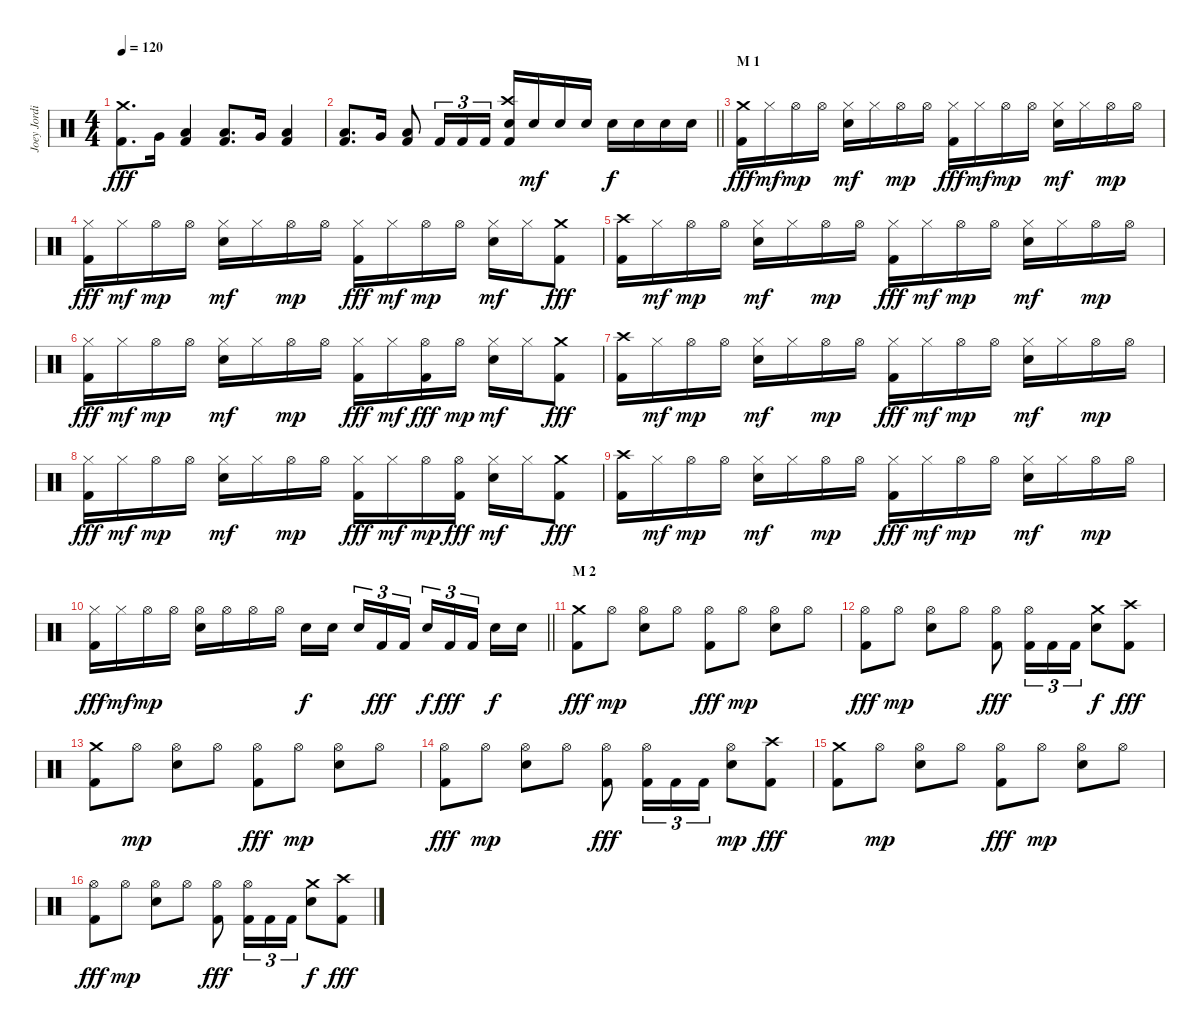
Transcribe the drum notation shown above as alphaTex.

\track ("Joey Jordison" "Joey Jordi") {instrument percussion}
\staff {score}
\articulation defaults
\ts (4 4)
\tempo 120
\clef neutral
\ks c
("Crash medium (hit)" "Kick (hit) 2").8{d dy fff} "Very Low Tom (hit)".16 ("Low Floor Tom (hit)" "Kick (hit) 2").4 ("Low Floor Tom (hit)" "Kick (hit) 2").8{d} "Very Low Tom (hit)".16 ("Low Floor Tom (hit)" "Kick (hit) 2").4 |
\barLineRight lightlight
("Low Floor Tom (hit)" "Kick (hit) 2").8{d} "Very Low Tom (hit)".16 ("Low Floor Tom (hit)" "Kick (hit) 2").8 "Kick (hit) 2".16{tu (3 2)} "Kick (hit) 2".16{tu (3 2)} "Kick (hit) 2".16{tu (3 2)} ("Crash high (hit)" "Electric Snare (hit)" "Kick (hit) 2").16 "Electric Snare (hit)".16{dy mf} "Electric Snare (hit)".16 "Electric Snare (hit)".16 "Electric Snare (hit)".16{dy f} "Electric Snare (hit)".16 "Electric Snare (hit)".16 "Electric Snare (hit)".16 |
\section ("" "M 1")
("Crash medium (hit)" "Kick (hit) 2").16{dy fff} "Hi-Hat (closed)".16{dy mf} "Hi-Hat (open)".16{dy mp} "Hi-Hat (open)".16 ("Hi-Hat (closed)" "Electric Snare (hit)").16{dy mf} "Hi-Hat (closed)".16 "Hi-Hat (open)".16{dy mp} "Hi-Hat (open)".16 ("Hi-Hat (closed)" "Kick (hit) 2").16{dy fff} "Hi-Hat (closed)".16{dy mf} "Hi-Hat (open)".16{dy mp} "Hi-Hat (open)".16 ("Hi-Hat (closed)" "Electric Snare (hit)").16{dy mf} "Hi-Hat (closed)".16 "Hi-Hat (open)".16{dy mp} "Hi-Hat (open)".16 |
("Hi-Hat (closed)" "Kick (hit) 2").16{dy fff} "Hi-Hat (closed)".16{dy mf} "Hi-Hat (open)".16{dy mp} "Hi-Hat (open)".16 ("Hi-Hat (closed)" "Electric Snare (hit)").16{dy mf} "Hi-Hat (closed)".16 "Hi-Hat (open)".16{dy mp} "Hi-Hat (open)".16 ("Hi-Hat (closed)" "Kick (hit) 2").16{dy fff} "Hi-Hat (closed)".16{dy mf} "Hi-Hat (open)".16{dy mp} "Hi-Hat (open)".16 ("Hi-Hat (closed)" "Electric Snare (hit)").16{dy mf} "Hi-Hat (closed)".16 ("Crash medium (hit)" "Kick (hit) 2").8{dy fff} |
("Crash high (hit)" "Kick (hit) 2").16 "Hi-Hat (closed)".16{dy mf} "Hi-Hat (open)".16{dy mp} "Hi-Hat (open)".16 ("Hi-Hat (closed)" "Electric Snare (hit)").16{dy mf} "Hi-Hat (closed)".16 "Hi-Hat (open)".16{dy mp} "Hi-Hat (open)".16 ("Hi-Hat (closed)" "Kick (hit) 2").16{dy fff} "Hi-Hat (closed)".16{dy mf} "Hi-Hat (open)".16{dy mp} "Hi-Hat (open)".16 ("Hi-Hat (closed)" "Electric Snare (hit)").16{dy mf} "Hi-Hat (closed)".16 "Hi-Hat (open)".16{dy mp} "Hi-Hat (open)".16 |
("Hi-Hat (closed)" "Kick (hit) 2").16{dy fff} "Hi-Hat (closed)".16{dy mf} "Hi-Hat (open)".16{dy mp} "Hi-Hat (open)".16 ("Hi-Hat (closed)" "Electric Snare (hit)").16{dy mf} "Hi-Hat (closed)".16 "Hi-Hat (open)".16{dy mp} "Hi-Hat (open)".16 ("Hi-Hat (closed)" "Kick (hit) 2").16{dy fff} "Hi-Hat (closed)".16{dy mf} ("Hi-Hat (open)" "Kick (hit) 2").16{dy fff} "Hi-Hat (open)".16{dy mp} ("Hi-Hat (closed)" "Electric Snare (hit)").16{dy mf} "Hi-Hat (closed)".16 ("Crash medium (hit)" "Kick (hit) 2").8{dy fff} |
("Crash high (hit)" "Kick (hit) 2").16 "Hi-Hat (closed)".16{dy mf} "Hi-Hat (open)".16{dy mp} "Hi-Hat (open)".16 ("Hi-Hat (closed)" "Electric Snare (hit)").16{dy mf} "Hi-Hat (closed)".16 "Hi-Hat (open)".16{dy mp} "Hi-Hat (open)".16 ("Hi-Hat (closed)" "Kick (hit) 2").16{dy fff} "Hi-Hat (closed)".16{dy mf} "Hi-Hat (open)".16{dy mp} "Hi-Hat (open)".16 ("Hi-Hat (closed)" "Electric Snare (hit)").16{dy mf} "Hi-Hat (closed)".16 "Hi-Hat (open)".16{dy mp} "Hi-Hat (open)".16 |
("Hi-Hat (closed)" "Kick (hit) 2").16{dy fff} "Hi-Hat (closed)".16{dy mf} "Hi-Hat (open)".16{dy mp} "Hi-Hat (open)".16 ("Hi-Hat (closed)" "Electric Snare (hit)").16{dy mf} "Hi-Hat (closed)".16 "Hi-Hat (open)".16{dy mp} "Hi-Hat (open)".16 ("Hi-Hat (closed)" "Kick (hit) 2").16{dy fff} "Hi-Hat (closed)".16{dy mf} "Hi-Hat (open)".16{dy mp} ("Hi-Hat (open)" "Kick (hit) 2").16{dy fff} ("Hi-Hat (closed)" "Electric Snare (hit)").16{dy mf} "Hi-Hat (closed)".16 ("Crash medium (hit)" "Kick (hit) 2").8{dy fff} |
("Crash high (hit)" "Kick (hit) 2").16 "Hi-Hat (closed)".16{dy mf} "Hi-Hat (open)".16{dy mp} "Hi-Hat (open)".16 ("Hi-Hat (closed)" "Electric Snare (hit)").16{dy mf} "Hi-Hat (closed)".16 "Hi-Hat (open)".16{dy mp} "Hi-Hat (open)".16 ("Hi-Hat (closed)" "Kick (hit) 2").16{dy fff} "Hi-Hat (closed)".16{dy mf} "Hi-Hat (open)".16{dy mp} "Hi-Hat (open)".16 ("Hi-Hat (closed)" "Electric Snare (hit)").16{dy mf} "Hi-Hat (closed)".16 "Hi-Hat (open)".16{dy mp} "Hi-Hat (open)".16 |
\barLineRight lightlight
("Hi-Hat (closed)" "Kick (hit) 2").16{dy fff} "Hi-Hat (closed)".16{dy mf} "Hi-Hat (open)".16{dy mp} "Hi-Hat (open)".16 ("Hi-Hat (open)" "Electric Snare (hit)").16 "Hi-Hat (open)".16 "Hi-Hat (open)".16 "Hi-Hat (open)".16 "Electric Snare (hit)".16{dy f} "Electric Snare (hit)".16{beam splitsecondary} "Electric Snare (hit)".16{tu (3 2)} "Kick (hit) 2".16{tu (3 2) dy fff} "Kick (hit) 2".16{tu (3 2)} "Electric Snare (hit)".16{tu (3 2) dy f} "Kick (hit) 2".16{tu (3 2) dy fff} "Kick (hit) 2".16{tu (3 2) beam splitsecondary} "Electric Snare (hit)".16{dy f} "Electric Snare (hit)".16 |
\section ("" "M 2")
("Crash medium (hit)" "Kick (hit) 2").8{dy fff} "Hi-Hat (open)".8{dy mp} ("Hi-Hat (open)" "Electric Snare (hit)").8 "Hi-Hat (open)".8 ("Hi-Hat (open)" "Kick (hit) 2").8{dy fff} "Hi-Hat (open)".8{dy mp} ("Hi-Hat (open)" "Electric Snare (hit)").8 "Hi-Hat (open)".8 |
("Hi-Hat (open)" "Kick (hit) 2").8{dy fff} "Hi-Hat (open)".8{dy mp} ("Hi-Hat (open)" "Electric Snare (hit)").8 "Hi-Hat (open)".8 ("Hi-Hat (open)" "Kick (hit) 2").8{dy fff} ("Hi-Hat (open)" "Kick (hit) 2").16{tu (3 2)} "Kick (hit) 2".16{tu (3 2)} "Kick (hit) 2".16{tu (3 2)} ("Crash medium (hit)" "Electric Snare (hit)").8{dy f} ("Crash high (hit)" "Kick (hit) 2").8{dy fff} |
("Crash medium (hit)" "Kick (hit) 2").8 "Hi-Hat (open)".8{dy mp} ("Hi-Hat (open)" "Electric Snare (hit)").8 "Hi-Hat (open)".8 ("Hi-Hat (open)" "Kick (hit) 2").8{dy fff} "Hi-Hat (open)".8{dy mp} ("Hi-Hat (open)" "Electric Snare (hit)").8 "Hi-Hat (open)".8 |
("Hi-Hat (open)" "Kick (hit) 2").8{dy fff} "Hi-Hat (open)".8{dy mp} ("Hi-Hat (open)" "Electric Snare (hit)").8 "Hi-Hat (open)".8 ("Hi-Hat (open)" "Kick (hit) 2").8{dy fff} ("Hi-Hat (open)" "Kick (hit) 2").16{tu (3 2)} "Kick (hit) 2".16{tu (3 2)} "Kick (hit) 2".16{tu (3 2)} ("Hi-Hat (open)" "Electric Snare (hit)").8{dy mp} ("Crash high (hit)" "Kick (hit) 2").8{dy fff} |
("Crash medium (hit)" "Kick (hit) 2").8 "Hi-Hat (open)".8{dy mp} ("Hi-Hat (open)" "Electric Snare (hit)").8 "Hi-Hat (open)".8 ("Hi-Hat (open)" "Kick (hit) 2").8{dy fff} "Hi-Hat (open)".8{dy mp} ("Hi-Hat (open)" "Electric Snare (hit)").8 "Hi-Hat (open)".8 |
("Hi-Hat (open)" "Kick (hit) 2").8{dy fff} "Hi-Hat (open)".8{dy mp} ("Hi-Hat (open)" "Electric Snare (hit)").8 "Hi-Hat (open)".8 ("Hi-Hat (open)" "Kick (hit) 2").8{dy fff} ("Hi-Hat (open)" "Kick (hit) 2").16{tu (3 2)} "Kick (hit) 2".16{tu (3 2)} "Kick (hit) 2".16{tu (3 2)} ("Crash medium (hit)" "Electric Snare (hit)").8{dy f} ("Crash high (hit)" "Kick (hit) 2").8{dy fff}
